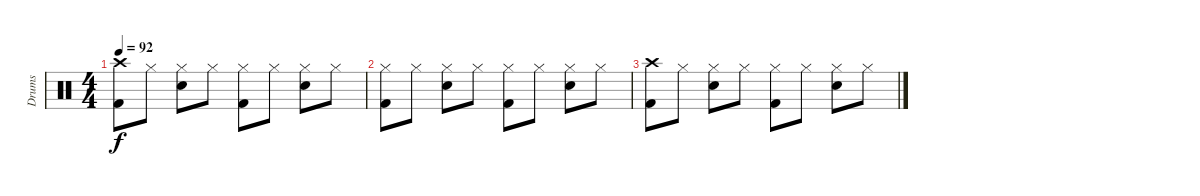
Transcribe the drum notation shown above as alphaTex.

\track ("Drums" "Drums") {instrument percussion}
\staff {score}
\articulation defaults
\ts (4 4)
\tempo 92
\clef neutral
\ks c
("Crash high (hit)" "Kick (hit) 2").8{dy f volume 2} "Hi-Hat (closed)".8 ("Hi-Hat (closed)" "Snare (hit) 2").8 "Hi-Hat (closed)".8 ("Hi-Hat (closed)" "Kick (hit) 2").8 "Hi-Hat (closed)".8 ("Hi-Hat (closed)" "Snare (hit) 2").8 "Hi-Hat (closed)".8 |
("Hi-Hat (closed)" "Kick (hit) 2").8 "Hi-Hat (closed)".8 ("Hi-Hat (closed)" "Snare (hit) 2").8 "Hi-Hat (closed)".8 ("Hi-Hat (closed)" "Kick (hit) 2").8 "Hi-Hat (closed)".8 ("Hi-Hat (closed)" "Snare (hit) 2").8 "Hi-Hat (closed)".8 |
("Crash high (hit)" "Kick (hit) 2").8{volume 0} "Hi-Hat (closed)".8 ("Hi-Hat (closed)" "Snare (hit) 2").8 "Hi-Hat (closed)".8 ("Hi-Hat (closed)" "Kick (hit) 2").8 "Hi-Hat (closed)".8 ("Hi-Hat (closed)" "Snare (hit) 2").8 "Hi-Hat (closed)".8
